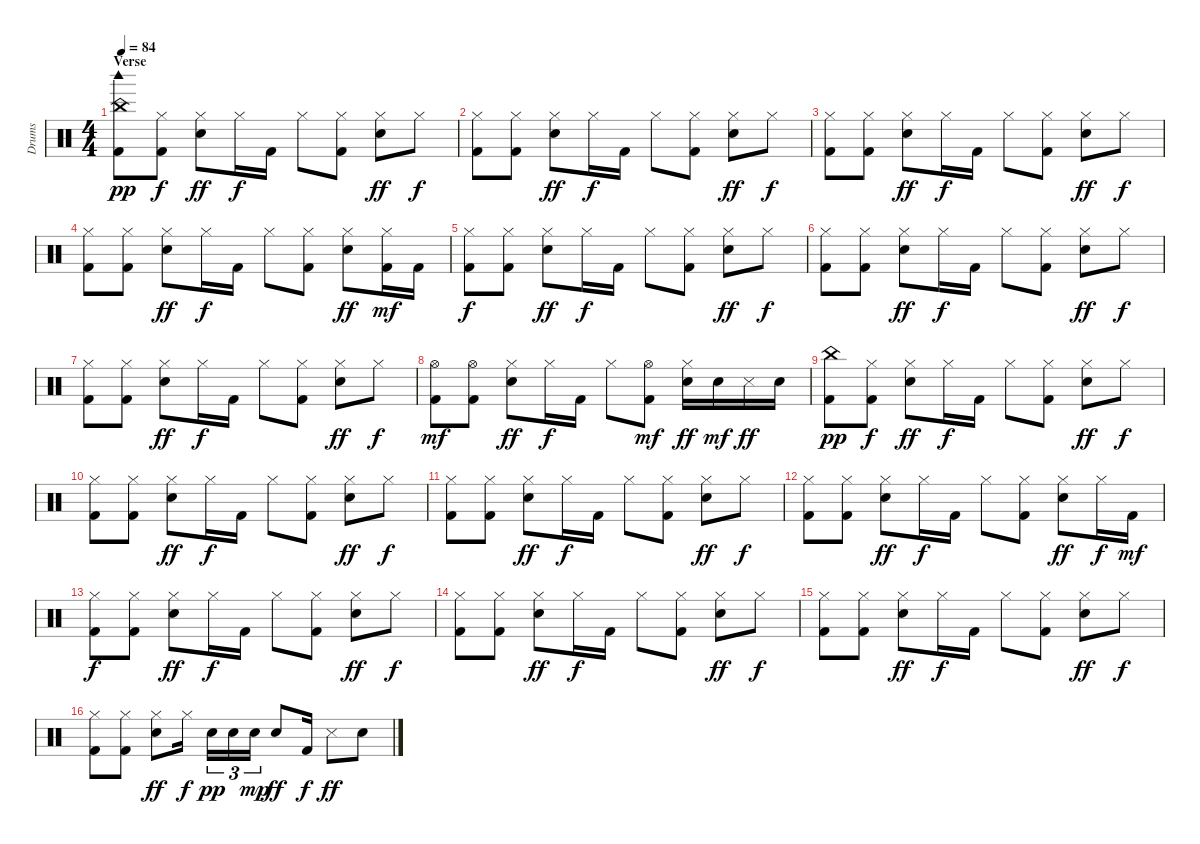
\track ("Drums" "Drums") {instrument percussion}
\staff {score}
\articulation defaults
\ts (4 4)
\section ("" "Verse")
\tempo 84
\clef neutral
\ks c
("China (hit)" "Woodblock high (hit)" "Kick (hit) 2").8{dy pp} ("Hi-Hat (closed)" "Kick (hit) 2").8{dy f} ("Hi-Hat (closed)" "Electric Snare (hit)").8{dy ff} "Hi-Hat (closed)".16{dy f} "Kick (hit) 2".16 "Hi-Hat (closed)".8 ("Hi-Hat (closed)" "Kick (hit) 2").8 ("Hi-Hat (closed)" "Electric Snare (hit)").8{dy ff} "Hi-Hat (closed)".8{dy f} |
("Hi-Hat (closed)" "Kick (hit) 2").8 ("Hi-Hat (closed)" "Kick (hit) 2").8 ("Hi-Hat (closed)" "Electric Snare (hit)").8{dy ff} "Hi-Hat (closed)".16{dy f} "Kick (hit) 2".16 "Hi-Hat (closed)".8 ("Hi-Hat (closed)" "Kick (hit) 2").8 ("Hi-Hat (closed)" "Electric Snare (hit)").8{dy ff} "Hi-Hat (closed)".8{dy f} |
("Hi-Hat (closed)" "Kick (hit) 2").8 ("Hi-Hat (closed)" "Kick (hit) 2").8 ("Hi-Hat (closed)" "Electric Snare (hit)").8{dy ff} "Hi-Hat (closed)".16{dy f} "Kick (hit) 2".16 "Hi-Hat (closed)".8 ("Hi-Hat (closed)" "Kick (hit) 2").8 ("Hi-Hat (closed)" "Electric Snare (hit)").8{dy ff} "Hi-Hat (closed)".8{dy f} |
("Hi-Hat (closed)" "Kick (hit) 2").8 ("Hi-Hat (closed)" "Kick (hit) 2").8 ("Hi-Hat (closed)" "Electric Snare (hit)").8{dy ff} "Hi-Hat (closed)".16{dy f} "Kick (hit) 2".16 "Hi-Hat (closed)".8 ("Hi-Hat (closed)" "Kick (hit) 2").8 ("Hi-Hat (closed)" "Electric Snare (hit)").8{dy ff} ("Hi-Hat (closed)" "Kick (hit) 2").16{dy mf} "Kick (hit) 2".16 |
("Hi-Hat (closed)" "Kick (hit) 2").8{dy f} ("Hi-Hat (closed)" "Kick (hit) 2").8 ("Hi-Hat (closed)" "Electric Snare (hit)").8{dy ff} "Hi-Hat (closed)".16{dy f} "Kick (hit) 2".16 "Hi-Hat (closed)".8 ("Hi-Hat (closed)" "Kick (hit) 2").8 ("Hi-Hat (closed)" "Electric Snare (hit)").8{dy ff} "Hi-Hat (closed)".8{dy f} |
("Hi-Hat (closed)" "Kick (hit) 2").8 ("Hi-Hat (closed)" "Kick (hit) 2").8 ("Hi-Hat (closed)" "Electric Snare (hit)").8{dy ff} "Hi-Hat (closed)".16{dy f} "Kick (hit) 2".16 "Hi-Hat (closed)".8 ("Hi-Hat (closed)" "Kick (hit) 2").8 ("Hi-Hat (closed)" "Electric Snare (hit)").8{dy ff} "Hi-Hat (closed)".8{dy f} |
("Hi-Hat (closed)" "Kick (hit) 2").8 ("Hi-Hat (closed)" "Kick (hit) 2").8 ("Hi-Hat (closed)" "Electric Snare (hit)").8{dy ff} "Hi-Hat (closed)".16{dy f} "Kick (hit) 2".16 "Hi-Hat (closed)".8 ("Hi-Hat (closed)" "Kick (hit) 2").8 ("Hi-Hat (closed)" "Electric Snare (hit)").8{dy ff} "Hi-Hat (closed)".8{dy f} |
("Hi-Hat (open)" "Kick (hit) 2").8{dy mf} ("Hi-Hat (open)" "Kick (hit) 2").8 ("Hi-Hat (closed)" "Electric Snare (hit)").8{dy ff} "Hi-Hat (closed)".16{dy f} "Kick (hit) 2".16 "Hi-Hat (closed)".8 ("Hi-Hat (open)" "Kick (hit) 2").8{dy mf} ("Hi-Hat (closed)" "Electric Snare (hit)").16{dy ff} "Electric Snare (hit)".16{dy mf} "Snare (side stick) 3".16{dy ff balance 16} "Snare (hit) 2".16{balance 0} |
("China (hit)" "Kick (hit) 2").8{dy pp balance 8} ("Hi-Hat (closed)" "Kick (hit) 2").8{dy f} ("Hi-Hat (closed)" "Electric Snare (hit)").8{dy ff} "Hi-Hat (closed)".16{dy f} "Kick (hit) 2".16 "Hi-Hat (closed)".8 ("Hi-Hat (closed)" "Kick (hit) 2").8 ("Hi-Hat (closed)" "Electric Snare (hit)").8{dy ff} "Hi-Hat (closed)".8{dy f} |
("Hi-Hat (closed)" "Kick (hit) 2").8 ("Hi-Hat (closed)" "Kick (hit) 2").8 ("Hi-Hat (closed)" "Electric Snare (hit)").8{dy ff} "Hi-Hat (closed)".16{dy f} "Kick (hit) 2".16 "Hi-Hat (closed)".8 ("Hi-Hat (closed)" "Kick (hit) 2").8 ("Hi-Hat (closed)" "Electric Snare (hit)").8{dy ff} "Hi-Hat (closed)".8{dy f} |
("Hi-Hat (closed)" "Kick (hit) 2").8 ("Hi-Hat (closed)" "Kick (hit) 2").8 ("Hi-Hat (closed)" "Electric Snare (hit)").8{dy ff} "Hi-Hat (closed)".16{dy f} "Kick (hit) 2".16 "Hi-Hat (closed)".8 ("Hi-Hat (closed)" "Kick (hit) 2").8 ("Hi-Hat (closed)" "Electric Snare (hit)").8{dy ff} "Hi-Hat (closed)".8{dy f} |
("Hi-Hat (closed)" "Kick (hit) 2").8 ("Hi-Hat (closed)" "Kick (hit) 2").8 ("Hi-Hat (closed)" "Electric Snare (hit)").8{dy ff} "Hi-Hat (closed)".16{dy f} "Kick (hit) 2".16 "Hi-Hat (closed)".8 ("Hi-Hat (closed)" "Kick (hit) 2").8 ("Hi-Hat (closed)" "Electric Snare (hit)").8{dy ff} "Hi-Hat (closed)".16{dy f} "Kick (hit) 2".16{dy mf} |
("Hi-Hat (closed)" "Kick (hit) 2").8{dy f} ("Hi-Hat (closed)" "Kick (hit) 2").8 ("Hi-Hat (closed)" "Electric Snare (hit)").8{dy ff} "Hi-Hat (closed)".16{dy f} "Kick (hit) 2".16 "Hi-Hat (closed)".8 ("Hi-Hat (closed)" "Kick (hit) 2").8 ("Hi-Hat (closed)" "Electric Snare (hit)").8{dy ff} "Hi-Hat (closed)".8{dy f} |
("Hi-Hat (closed)" "Kick (hit) 2").8 ("Hi-Hat (closed)" "Kick (hit) 2").8 ("Hi-Hat (closed)" "Electric Snare (hit)").8{dy ff} "Hi-Hat (closed)".16{dy f} "Kick (hit) 2".16 "Hi-Hat (closed)".8 ("Hi-Hat (closed)" "Kick (hit) 2").8 ("Hi-Hat (closed)" "Electric Snare (hit)").8{dy ff} "Hi-Hat (closed)".8{dy f} |
("Hi-Hat (closed)" "Kick (hit) 2").8 ("Hi-Hat (closed)" "Kick (hit) 2").8 ("Hi-Hat (closed)" "Electric Snare (hit)").8{dy ff} "Hi-Hat (closed)".16{dy f} "Kick (hit) 2".16 "Hi-Hat (closed)".8 ("Hi-Hat (closed)" "Kick (hit) 2").8 ("Hi-Hat (closed)" "Electric Snare (hit)").8{dy ff} "Hi-Hat (closed)".8{dy f} |
("Hi-Hat (closed)" "Kick (hit) 2").8 ("Hi-Hat (closed)" "Kick (hit) 2").8 ("Hi-Hat (closed)" "Electric Snare (hit)").8{dy ff} "Hi-Hat (closed)".16{dy f beam splitsecondary} "Electric Snare (hit)".16{tu (3 2) dy pp} "Electric Snare (hit)".16{tu (3 2)} "Electric Snare (hit)".16{tu (3 2) dy mp} "Electric Snare (hit)".8{dy ff} "Kick (hit) 2".16{dy f} "Snare (side stick) 3".8{dy ff balance 16} "Snare (hit) 2".8{balance 0}
